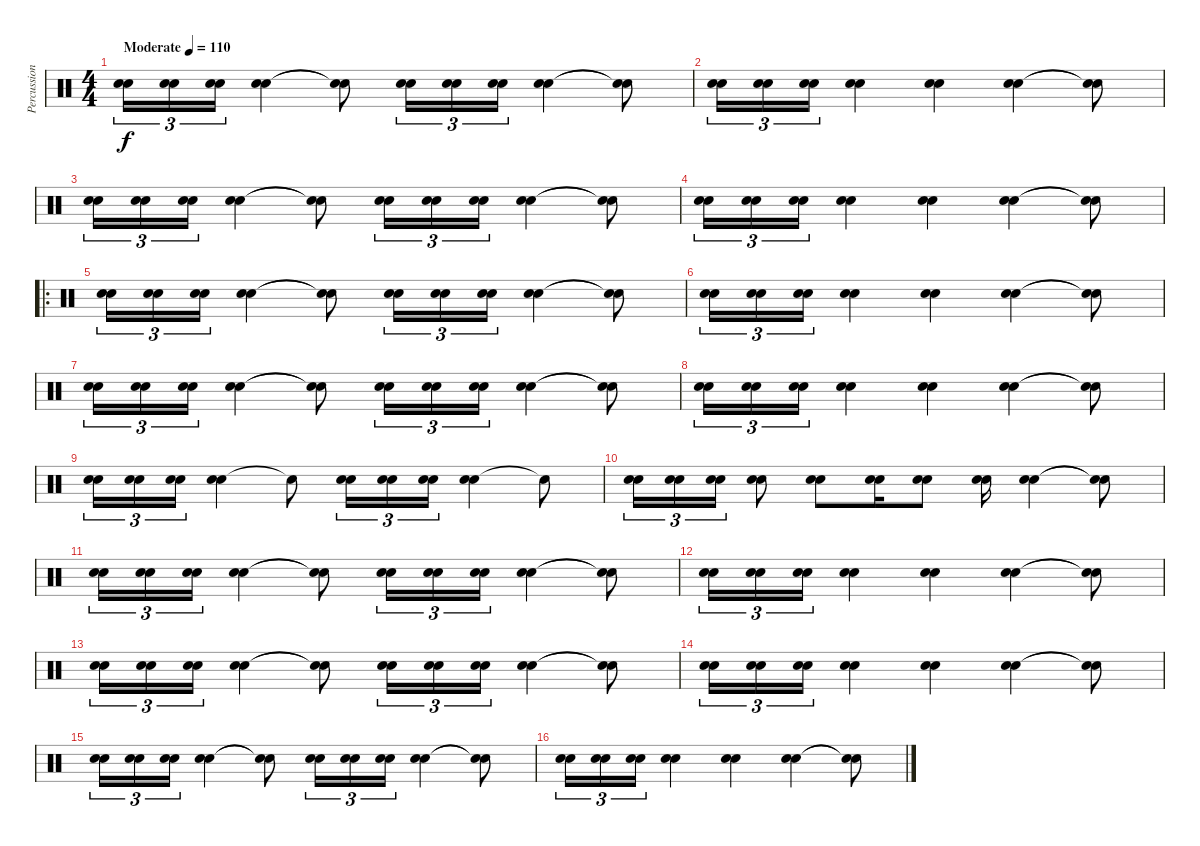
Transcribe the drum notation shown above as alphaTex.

\track ("Percussion" "Percussion") {instrument percussion}
\staff {score}
\articulation defaults
\ts (4 4)
\tempo (110 "Moderate")
\clef neutral
\ks c
("Electric Snare (hit)" "Electric Snare (hit)").16{tu (3 2) dy f} ("Electric Snare (hit)" "Electric Snare (hit)").16{tu (3 2)} ("Electric Snare (hit)" "Electric Snare (hit)").16{tu (3 2)} ("Electric Snare (hit)" "Electric Snare (hit)").4 ("Snare (hit)"{t} "Snare (hit)"{t}).8 ("Electric Snare (hit)" "Electric Snare (hit)").16{tu (3 2)} ("Electric Snare (hit)" "Electric Snare (hit)").16{tu (3 2)} ("Electric Snare (hit)" "Electric Snare (hit)").16{tu (3 2)} ("Electric Snare (hit)" "Electric Snare (hit)").4 ("Snare (hit)"{t} "Snare (hit)"{t}).8 |
("Electric Snare (hit)" "Electric Snare (hit)").16{tu (3 2)} ("Electric Snare (hit)" "Electric Snare (hit)").16{tu (3 2)} ("Electric Snare (hit)" "Electric Snare (hit)").16{tu (3 2)} ("Electric Snare (hit)" "Electric Snare (hit)").4 ("Electric Snare (hit)" "Electric Snare (hit)").4 ("Electric Snare (hit)" "Electric Snare (hit)").4 ("Snare (hit)"{t} "Snare (hit)"{t}).8 |
("Electric Snare (hit)" "Electric Snare (hit)").16{tu (3 2)} ("Electric Snare (hit)" "Electric Snare (hit)").16{tu (3 2)} ("Electric Snare (hit)" "Electric Snare (hit)").16{tu (3 2)} ("Electric Snare (hit)" "Electric Snare (hit)").4 ("Snare (hit)"{t} "Snare (hit)"{t}).8 ("Electric Snare (hit)" "Electric Snare (hit)").16{tu (3 2)} ("Electric Snare (hit)" "Electric Snare (hit)").16{tu (3 2)} ("Electric Snare (hit)" "Electric Snare (hit)").16{tu (3 2)} ("Electric Snare (hit)" "Electric Snare (hit)").4 ("Snare (hit)"{t} "Snare (hit)"{t}).8 |
("Electric Snare (hit)" "Electric Snare (hit)").16{tu (3 2)} ("Electric Snare (hit)" "Electric Snare (hit)").16{tu (3 2)} ("Electric Snare (hit)" "Electric Snare (hit)").16{tu (3 2)} ("Electric Snare (hit)" "Electric Snare (hit)").4 ("Electric Snare (hit)" "Electric Snare (hit)").4 ("Electric Snare (hit)" "Electric Snare (hit)").4 ("Snare (hit)"{t} "Snare (hit)"{t}).8 |
\ro
("Electric Snare (hit)" "Electric Snare (hit)").16{tu (3 2)} ("Electric Snare (hit)" "Electric Snare (hit)").16{tu (3 2)} ("Electric Snare (hit)" "Electric Snare (hit)").16{tu (3 2)} ("Electric Snare (hit)" "Electric Snare (hit)").4 ("Snare (hit)"{t} "Snare (hit)"{t}).8 ("Electric Snare (hit)" "Electric Snare (hit)").16{tu (3 2)} ("Electric Snare (hit)" "Electric Snare (hit)").16{tu (3 2)} ("Electric Snare (hit)" "Electric Snare (hit)").16{tu (3 2)} ("Electric Snare (hit)" "Electric Snare (hit)").4 ("Snare (hit)"{t} "Snare (hit)"{t}).8 |
("Electric Snare (hit)" "Electric Snare (hit)").16{tu (3 2)} ("Electric Snare (hit)" "Electric Snare (hit)").16{tu (3 2)} ("Electric Snare (hit)" "Electric Snare (hit)").16{tu (3 2)} ("Electric Snare (hit)" "Electric Snare (hit)").4 ("Electric Snare (hit)" "Electric Snare (hit)").4 ("Electric Snare (hit)" "Electric Snare (hit)").4 ("Snare (hit)"{t} "Snare (hit)"{t}).8 |
("Electric Snare (hit)" "Electric Snare (hit)").16{tu (3 2)} ("Electric Snare (hit)" "Electric Snare (hit)").16{tu (3 2)} ("Electric Snare (hit)" "Electric Snare (hit)").16{tu (3 2)} ("Electric Snare (hit)" "Electric Snare (hit)").4 ("Snare (hit)"{t} "Snare (hit)"{t}).8 ("Electric Snare (hit)" "Electric Snare (hit)").16{tu (3 2)} ("Electric Snare (hit)" "Electric Snare (hit)").16{tu (3 2)} ("Electric Snare (hit)" "Electric Snare (hit)").16{tu (3 2)} ("Electric Snare (hit)" "Electric Snare (hit)").4 ("Snare (hit)"{t} "Snare (hit)"{t}).8 |
("Electric Snare (hit)" "Electric Snare (hit)").16{tu (3 2)} ("Electric Snare (hit)" "Electric Snare (hit)").16{tu (3 2)} ("Electric Snare (hit)" "Electric Snare (hit)").16{tu (3 2)} ("Electric Snare (hit)" "Electric Snare (hit)").4 ("Electric Snare (hit)" "Electric Snare (hit)").4 ("Electric Snare (hit)" "Electric Snare (hit)").4 ("Snare (hit)"{t} "Snare (hit)"{t}).8 |
("Electric Snare (hit)" "Electric Snare (hit)").16{tu (3 2)} ("Electric Snare (hit)" "Electric Snare (hit)").16{tu (3 2)} ("Electric Snare (hit)" "Electric Snare (hit)").16{tu (3 2)} ("Electric Snare (hit)" "Electric Snare (hit)").4 "Snare (hit)"{t}.8 ("Electric Snare (hit)" "Electric Snare (hit)").16{tu (3 2)} ("Electric Snare (hit)" "Electric Snare (hit)").16{tu (3 2)} ("Electric Snare (hit)" "Electric Snare (hit)").16{tu (3 2)} ("Electric Snare (hit)" "Electric Snare (hit)").4 "Snare (hit)"{t}.8 |
("Electric Snare (hit)" "Electric Snare (hit)").16{tu (3 2)} ("Electric Snare (hit)" "Electric Snare (hit)").16{tu (3 2)} ("Electric Snare (hit)" "Electric Snare (hit)").16{tu (3 2)} ("Electric Snare (hit)" "Electric Snare (hit)").8 ("Electric Snare (hit)" "Electric Snare (hit)").8 ("Electric Snare (hit)" "Electric Snare (hit)").16 ("Electric Snare (hit)" "Electric Snare (hit)").8 ("Electric Snare (hit)" "Electric Snare (hit)").16 ("Electric Snare (hit)" "Electric Snare (hit)").4 ("Snare (hit)"{t} "Snare (hit)"{t}).8 |
("Electric Snare (hit)" "Electric Snare (hit)").16{tu (3 2)} ("Electric Snare (hit)" "Electric Snare (hit)").16{tu (3 2)} ("Electric Snare (hit)" "Electric Snare (hit)").16{tu (3 2)} ("Electric Snare (hit)" "Electric Snare (hit)").4 ("Snare (hit)"{t} "Snare (hit)"{t}).8 ("Electric Snare (hit)" "Electric Snare (hit)").16{tu (3 2)} ("Electric Snare (hit)" "Electric Snare (hit)").16{tu (3 2)} ("Electric Snare (hit)" "Electric Snare (hit)").16{tu (3 2)} ("Electric Snare (hit)" "Electric Snare (hit)").4 ("Snare (hit)"{t} "Snare (hit)"{t}).8 |
("Electric Snare (hit)" "Electric Snare (hit)").16{tu (3 2)} ("Electric Snare (hit)" "Electric Snare (hit)").16{tu (3 2)} ("Electric Snare (hit)" "Electric Snare (hit)").16{tu (3 2)} ("Electric Snare (hit)" "Electric Snare (hit)").4 ("Electric Snare (hit)" "Electric Snare (hit)").4 ("Electric Snare (hit)" "Electric Snare (hit)").4 ("Snare (hit)"{t} "Snare (hit)"{t}).8 |
("Electric Snare (hit)" "Electric Snare (hit)").16{tu (3 2)} ("Electric Snare (hit)" "Electric Snare (hit)").16{tu (3 2)} ("Electric Snare (hit)" "Electric Snare (hit)").16{tu (3 2)} ("Electric Snare (hit)" "Electric Snare (hit)").4 ("Snare (hit)"{t} "Snare (hit)"{t}).8 ("Electric Snare (hit)" "Electric Snare (hit)").16{tu (3 2)} ("Electric Snare (hit)" "Electric Snare (hit)").16{tu (3 2)} ("Electric Snare (hit)" "Electric Snare (hit)").16{tu (3 2)} ("Electric Snare (hit)" "Electric Snare (hit)").4 ("Snare (hit)"{t} "Snare (hit)"{t}).8 |
("Electric Snare (hit)" "Electric Snare (hit)").16{tu (3 2)} ("Electric Snare (hit)" "Electric Snare (hit)").16{tu (3 2)} ("Electric Snare (hit)" "Electric Snare (hit)").16{tu (3 2)} ("Electric Snare (hit)" "Electric Snare (hit)").4 ("Electric Snare (hit)" "Electric Snare (hit)").4 ("Electric Snare (hit)" "Electric Snare (hit)").4 ("Snare (hit)"{t} "Snare (hit)"{t}).8 |
("Electric Snare (hit)" "Electric Snare (hit)").16{tu (3 2)} ("Electric Snare (hit)" "Electric Snare (hit)").16{tu (3 2)} ("Electric Snare (hit)" "Electric Snare (hit)").16{tu (3 2)} ("Electric Snare (hit)" "Electric Snare (hit)").4 ("Snare (hit)"{t} "Snare (hit)"{t}).8 ("Electric Snare (hit)" "Electric Snare (hit)").16{tu (3 2)} ("Electric Snare (hit)" "Electric Snare (hit)").16{tu (3 2)} ("Electric Snare (hit)" "Electric Snare (hit)").16{tu (3 2)} ("Electric Snare (hit)" "Electric Snare (hit)").4 ("Snare (hit)"{t} "Snare (hit)"{t}).8 |
("Electric Snare (hit)" "Electric Snare (hit)").16{tu (3 2)} ("Electric Snare (hit)" "Electric Snare (hit)").16{tu (3 2)} ("Electric Snare (hit)" "Electric Snare (hit)").16{tu (3 2)} ("Electric Snare (hit)" "Electric Snare (hit)").4 ("Electric Snare (hit)" "Electric Snare (hit)").4 ("Electric Snare (hit)" "Electric Snare (hit)").4 ("Snare (hit)"{t} "Snare (hit)"{t}).8
